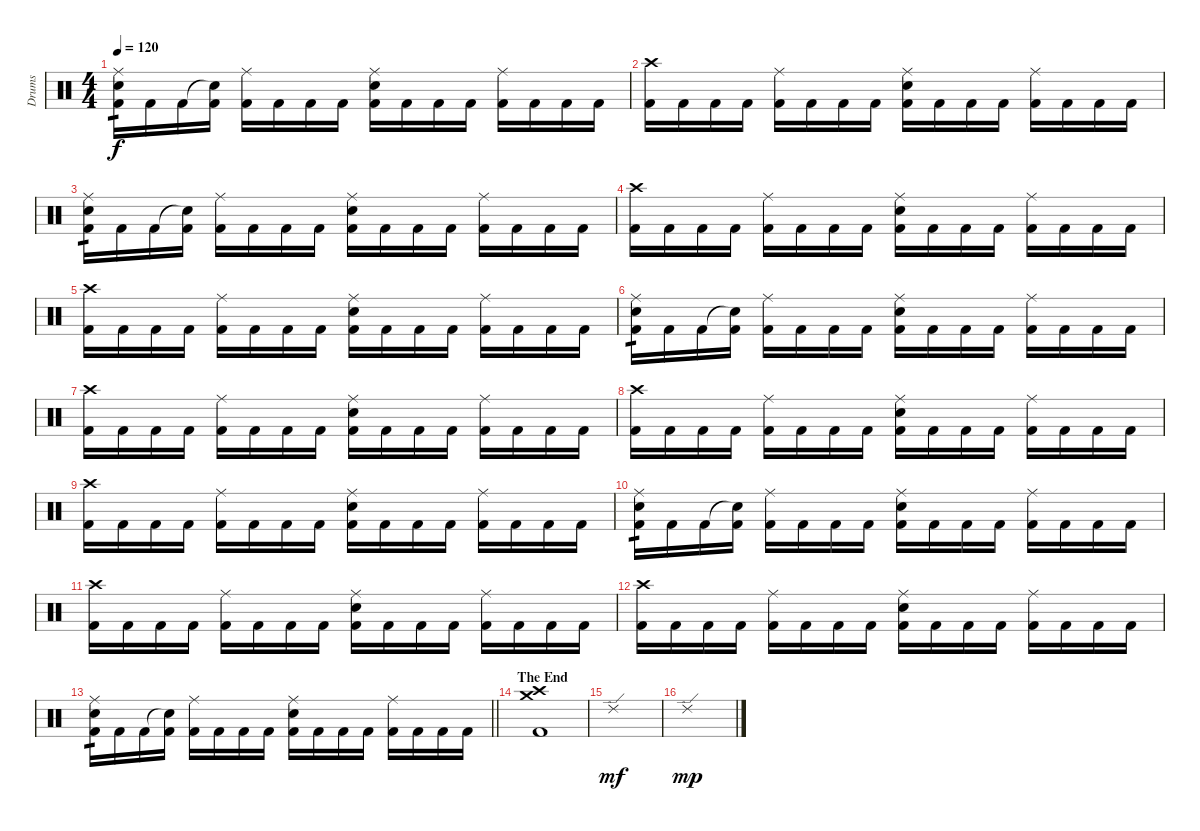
\track ("Drums" "Drums") {instrument percussion}
\staff {score}
\articulation defaults
\ts (4 4)
\tempo 120
\clef neutral
\ks c
("Ride (middle)" "Electric Snare (hit)" "Kick (hit) 2").16{tp 1 dy f} "Kick (hit) 2".16 "Kick (hit) 2".16 ("Snare (hit)"{t} "Kick (hit) 2").16 ("Ride (middle)" "Kick (hit) 2").16 "Kick (hit) 2".16 "Kick (hit) 2".16 "Kick (hit) 2".16 ("Ride (middle)" "Electric Snare (hit)" "Kick (hit) 2").16 "Kick (hit) 2".16 "Kick (hit) 2".16 "Kick (hit) 2".16 ("Ride (middle)" "Kick (hit) 2").16 "Kick (hit) 2".16 "Kick (hit) 2".16 "Kick (hit) 2".16 |
("Crash high (hit)" "Kick (hit) 2").16 "Kick (hit) 2".16 "Kick (hit) 2".16 "Kick (hit) 2".16 ("Ride (middle)" "Kick (hit) 2").16 "Kick (hit) 2".16 "Kick (hit) 2".16 "Kick (hit) 2".16 ("Ride (middle)" "Electric Snare (hit)" "Kick (hit) 2").16 "Kick (hit) 2".16 "Kick (hit) 2".16 "Kick (hit) 2".16 ("Ride (middle)" "Kick (hit) 2").16 "Kick (hit) 2".16 "Kick (hit) 2".16 "Kick (hit) 2".16 |
("Ride (middle)" "Electric Snare (hit)" "Kick (hit) 2").16{tp 1} "Kick (hit) 2".16 "Kick (hit) 2".16 ("Snare (hit)"{t} "Kick (hit) 2").16 ("Ride (middle)" "Kick (hit) 2").16 "Kick (hit) 2".16 "Kick (hit) 2".16 "Kick (hit) 2".16 ("Ride (middle)" "Electric Snare (hit)" "Kick (hit) 2").16 "Kick (hit) 2".16 "Kick (hit) 2".16 "Kick (hit) 2".16 ("Ride (middle)" "Kick (hit) 2").16 "Kick (hit) 2".16 "Kick (hit) 2".16 "Kick (hit) 2".16 |
("Crash high (hit)" "Kick (hit) 2").16 "Kick (hit) 2".16 "Kick (hit) 2".16 "Kick (hit) 2".16 ("Ride (middle)" "Kick (hit) 2").16 "Kick (hit) 2".16 "Kick (hit) 2".16 "Kick (hit) 2".16 ("Ride (middle)" "Electric Snare (hit)" "Kick (hit) 2").16 "Kick (hit) 2".16 "Kick (hit) 2".16 "Kick (hit) 2".16 ("Ride (middle)" "Kick (hit) 2").16 "Kick (hit) 2".16 "Kick (hit) 2".16 "Kick (hit) 2".16 |
("Crash high (hit)" "Kick (hit) 2").16 "Kick (hit) 2".16 "Kick (hit) 2".16 "Kick (hit) 2".16 ("Ride (middle)" "Kick (hit) 2").16 "Kick (hit) 2".16 "Kick (hit) 2".16 "Kick (hit) 2".16 ("Ride (middle)" "Electric Snare (hit)" "Kick (hit) 2").16 "Kick (hit) 2".16 "Kick (hit) 2".16 "Kick (hit) 2".16 ("Ride (middle)" "Kick (hit) 2").16 "Kick (hit) 2".16 "Kick (hit) 2".16 "Kick (hit) 2".16 |
("Ride (middle)" "Electric Snare (hit)" "Kick (hit) 2").16{tp 1} "Kick (hit) 2".16 "Kick (hit) 2".16 ("Snare (hit)"{t} "Kick (hit) 2").16 ("Ride (middle)" "Kick (hit) 2").16 "Kick (hit) 2".16 "Kick (hit) 2".16 "Kick (hit) 2".16 ("Ride (middle)" "Electric Snare (hit)" "Kick (hit) 2").16 "Kick (hit) 2".16 "Kick (hit) 2".16 "Kick (hit) 2".16 ("Ride (middle)" "Kick (hit) 2").16 "Kick (hit) 2".16 "Kick (hit) 2".16 "Kick (hit) 2".16 |
("Crash high (hit)" "Kick (hit) 2").16 "Kick (hit) 2".16 "Kick (hit) 2".16 "Kick (hit) 2".16 ("Ride (middle)" "Kick (hit) 2").16 "Kick (hit) 2".16 "Kick (hit) 2".16 "Kick (hit) 2".16 ("Ride (middle)" "Electric Snare (hit)" "Kick (hit) 2").16 "Kick (hit) 2".16 "Kick (hit) 2".16 "Kick (hit) 2".16 ("Ride (middle)" "Kick (hit) 2").16 "Kick (hit) 2".16 "Kick (hit) 2".16 "Kick (hit) 2".16 |
("Crash high (hit)" "Kick (hit) 2").16 "Kick (hit) 2".16 "Kick (hit) 2".16 "Kick (hit) 2".16 ("Ride (middle)" "Kick (hit) 2").16 "Kick (hit) 2".16 "Kick (hit) 2".16 "Kick (hit) 2".16 ("Ride (middle)" "Electric Snare (hit)" "Kick (hit) 2").16 "Kick (hit) 2".16 "Kick (hit) 2".16 "Kick (hit) 2".16 ("Ride (middle)" "Kick (hit) 2").16 "Kick (hit) 2".16 "Kick (hit) 2".16 "Kick (hit) 2".16 |
("Crash high (hit)" "Kick (hit) 2").16 "Kick (hit) 2".16 "Kick (hit) 2".16 "Kick (hit) 2".16 ("Ride (middle)" "Kick (hit) 2").16 "Kick (hit) 2".16 "Kick (hit) 2".16 "Kick (hit) 2".16 ("Ride (middle)" "Electric Snare (hit)" "Kick (hit) 2").16 "Kick (hit) 2".16 "Kick (hit) 2".16 "Kick (hit) 2".16 ("Ride (middle)" "Kick (hit) 2").16 "Kick (hit) 2".16 "Kick (hit) 2".16 "Kick (hit) 2".16 |
("Ride (middle)" "Electric Snare (hit)" "Kick (hit) 2").16{tp 1} "Kick (hit) 2".16 "Kick (hit) 2".16 ("Snare (hit)"{t} "Kick (hit) 2").16 ("Ride (middle)" "Kick (hit) 2").16 "Kick (hit) 2".16 "Kick (hit) 2".16 "Kick (hit) 2".16 ("Ride (middle)" "Electric Snare (hit)" "Kick (hit) 2").16 "Kick (hit) 2".16 "Kick (hit) 2".16 "Kick (hit) 2".16 ("Ride (middle)" "Kick (hit) 2").16 "Kick (hit) 2".16 "Kick (hit) 2".16 "Kick (hit) 2".16 |
("Crash high (hit)" "Kick (hit) 2").16 "Kick (hit) 2".16 "Kick (hit) 2".16 "Kick (hit) 2".16 ("Ride (middle)" "Kick (hit) 2").16 "Kick (hit) 2".16 "Kick (hit) 2".16 "Kick (hit) 2".16 ("Ride (middle)" "Electric Snare (hit)" "Kick (hit) 2").16 "Kick (hit) 2".16 "Kick (hit) 2".16 "Kick (hit) 2".16 ("Ride (middle)" "Kick (hit) 2").16 "Kick (hit) 2".16 "Kick (hit) 2".16 "Kick (hit) 2".16 |
("Crash high (hit)" "Kick (hit) 2").16 "Kick (hit) 2".16 "Kick (hit) 2".16 "Kick (hit) 2".16 ("Ride (middle)" "Kick (hit) 2").16 "Kick (hit) 2".16 "Kick (hit) 2".16 "Kick (hit) 2".16 ("Ride (middle)" "Electric Snare (hit)" "Kick (hit) 2").16 "Kick (hit) 2".16 "Kick (hit) 2".16 "Kick (hit) 2".16 ("Ride (middle)" "Kick (hit) 2").16 "Kick (hit) 2".16 "Kick (hit) 2".16 "Kick (hit) 2".16 |
\barLineRight lightlight
("Ride (middle)" "Electric Snare (hit)" "Kick (hit) 2").16{tp 1} "Kick (hit) 2".16 "Kick (hit) 2".16 ("Snare (hit)"{t} "Kick (hit) 2").16 ("Ride (middle)" "Kick (hit) 2").16 "Kick (hit) 2".16 "Kick (hit) 2".16 "Kick (hit) 2".16 ("Ride (middle)" "Electric Snare (hit)" "Kick (hit) 2").16 "Kick (hit) 2".16 "Kick (hit) 2".16 "Kick (hit) 2".16 ("Ride (middle)" "Kick (hit) 2").16 "Kick (hit) 2".16 "Kick (hit) 2".16 "Kick (hit) 2".16 |
\section ("" "The End")
("Crash high (hit)" "Crash medium (hit)" "Kick (hit) 2").1 |
"Ride (edge) 2".1{dy mf} |
"Ride (edge) 2".1{dy mp}
